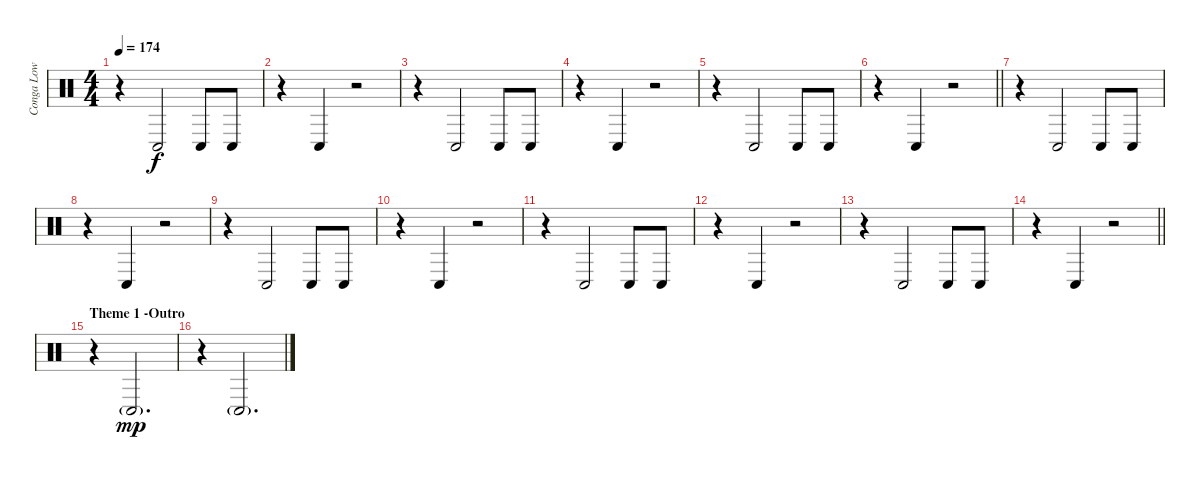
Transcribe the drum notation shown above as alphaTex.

\track ("Conga Low" "Conga Low") {instrument percussion}
\staff {score}
\articulation defaults
\ts (4 4)
\tempo 174
\clef neutral
\ks c
r.4{dy f} "Conga low (hit)".2 "Conga low (hit)".8 "Conga low (hit)".8 |
r.4 "Conga low (hit)".4 r.2 |
r.4 "Conga low (hit)".2 "Conga low (hit)".8 "Conga low (hit)".8 |
r.4 "Conga low (hit)".4 r.2 |
r.4 "Conga low (hit)".2 "Conga low (hit)".8 "Conga low (hit)".8 |
\barLineRight lightlight
r.4 "Conga low (hit)".4 r.2 |
r.4 "Conga low (hit)".2 "Conga low (hit)".8 "Conga low (hit)".8 |
r.4 "Conga low (hit)".4 r.2 |
r.4 "Conga low (hit)".2 "Conga low (hit)".8 "Conga low (hit)".8 |
r.4 "Conga low (hit)".4 r.2 |
r.4 "Conga low (hit)".2 "Conga low (hit)".8 "Conga low (hit)".8 |
r.4 "Conga low (hit)".4 r.2 |
r.4 "Conga low (hit)".2 "Conga low (hit)".8 "Conga low (hit)".8 |
\barLineRight lightlight
r.4 "Conga low (hit)".4 r.2 |
\section ("" "Theme 1 -Outro")
r.4 "Conga low (hit)"{g}.2{d dy mp} |
r.4 "Conga low (hit)"{g}.2{d}
